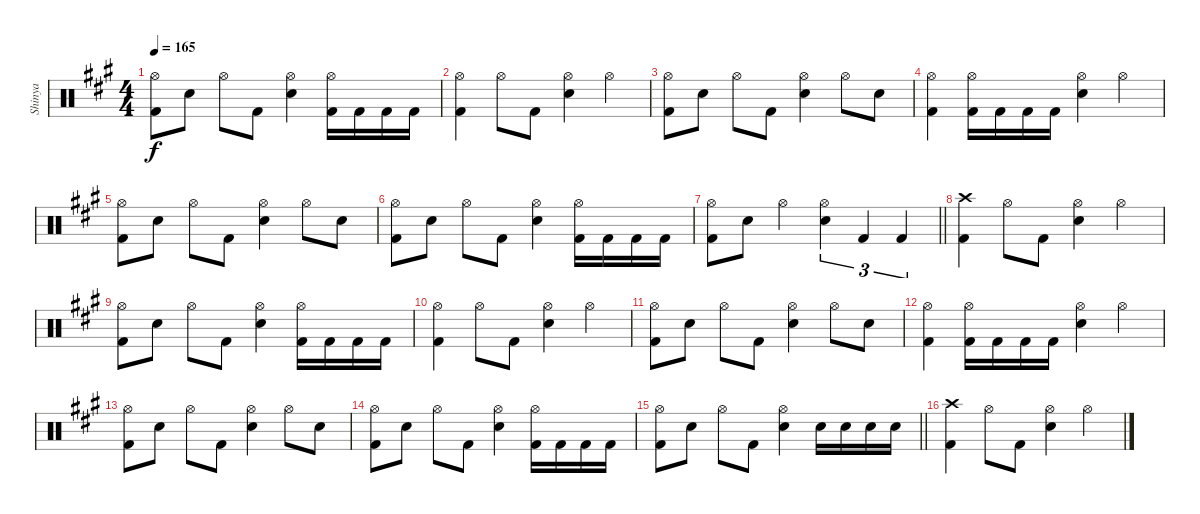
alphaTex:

\track ("Shinya" "Shinya") {instrument percussion}
\staff {score}
\articulation defaults
\ts (4 4)
\tempo 165
\clef neutral
\ks a
("Hi-Hat (open)" "Kick (hit) 2").8{dy f} "Snare (hit) 2".8 "Hi-Hat (open)".8 "Kick (hit) 2".8 ("Hi-Hat (open)" "Snare (hit) 2").4 ("Hi-Hat (open)" "Kick (hit) 2").16 "Kick (hit) 2".16 "Kick (hit) 2".16 "Kick (hit) 2".16 |
("Hi-Hat (open)" "Kick (hit) 2").4 "Hi-Hat (open)".8 "Kick (hit) 2".8 ("Hi-Hat (open)" "Snare (hit) 2").4 "Hi-Hat (open)".4 |
("Hi-Hat (open)" "Kick (hit) 2").8 "Snare (hit) 2".8 "Hi-Hat (open)".8 "Kick (hit) 2".8 ("Hi-Hat (open)" "Snare (hit) 2").4 "Hi-Hat (open)".8 "Snare (hit) 2".8 |
("Hi-Hat (open)" "Kick (hit) 2").4 ("Hi-Hat (open)" "Kick (hit) 2").16 "Kick (hit) 2".16 "Kick (hit) 2".16 "Kick (hit) 2".16 ("Hi-Hat (open)" "Snare (hit) 2").4 "Hi-Hat (open)".4 |
("Hi-Hat (open)" "Kick (hit) 2").8 "Snare (hit) 2".8 "Hi-Hat (open)".8 "Kick (hit) 2".8 ("Hi-Hat (open)" "Snare (hit) 2").4 "Hi-Hat (open)".8 "Snare (hit) 2".8 |
("Hi-Hat (open)" "Kick (hit) 2").8 "Snare (hit) 2".8 "Hi-Hat (open)".8 "Kick (hit) 2".8 ("Hi-Hat (open)" "Snare (hit) 2").4 ("Hi-Hat (open)" "Kick (hit) 2").16 "Kick (hit) 2".16 "Kick (hit) 2".16 "Kick (hit) 2".16 |
\barLineRight lightlight
("Hi-Hat (open)" "Kick (hit) 2").8 "Snare (hit) 2".8 "Hi-Hat (open)".4 ("Hi-Hat (open)" "Snare (hit) 2").4{tu (3 2)} "Kick (hit) 2".4{tu (3 2)} "Kick (hit) 2".4{tu (3 2)} |
("Crash high (hit)" "Kick (hit) 2").4 "Hi-Hat (open)".8 "Kick (hit) 2".8 ("Hi-Hat (open)" "Snare (hit) 2").4 "Hi-Hat (open)".4 |
("Hi-Hat (open)" "Kick (hit) 2").8 "Snare (hit) 2".8 "Hi-Hat (open)".8 "Kick (hit) 2".8 ("Hi-Hat (open)" "Snare (hit) 2").4 ("Hi-Hat (open)" "Kick (hit) 2").16 "Kick (hit) 2".16 "Kick (hit) 2".16 "Kick (hit) 2".16 |
("Hi-Hat (open)" "Kick (hit) 2").4 "Hi-Hat (open)".8 "Kick (hit) 2".8 ("Hi-Hat (open)" "Snare (hit) 2").4 "Hi-Hat (open)".4 |
("Hi-Hat (open)" "Kick (hit) 2").8 "Snare (hit) 2".8 "Hi-Hat (open)".8 "Kick (hit) 2".8 ("Hi-Hat (open)" "Snare (hit) 2").4 "Hi-Hat (open)".8 "Snare (hit) 2".8 |
("Hi-Hat (open)" "Kick (hit) 2").4 ("Hi-Hat (open)" "Kick (hit) 2").16 "Kick (hit) 2".16 "Kick (hit) 2".16 "Kick (hit) 2".16 ("Hi-Hat (open)" "Snare (hit) 2").4 "Hi-Hat (open)".4 |
("Hi-Hat (open)" "Kick (hit) 2").8 "Snare (hit) 2".8 "Hi-Hat (open)".8 "Kick (hit) 2".8 ("Hi-Hat (open)" "Snare (hit) 2").4 "Hi-Hat (open)".8 "Snare (hit) 2".8 |
("Hi-Hat (open)" "Kick (hit) 2").8 "Snare (hit) 2".8 "Hi-Hat (open)".8 "Kick (hit) 2".8 ("Hi-Hat (open)" "Snare (hit) 2").4 ("Hi-Hat (open)" "Kick (hit) 2").16 "Kick (hit) 2".16 "Kick (hit) 2".16 "Kick (hit) 2".16 |
\barLineRight lightlight
("Hi-Hat (open)" "Kick (hit) 2").8 "Snare (hit) 2".8 "Hi-Hat (open)".8 "Kick (hit) 2".8 ("Hi-Hat (open)" "Snare (hit) 2").4 "Snare (hit) 2".16 "Snare (hit) 2".16 "Snare (hit) 2".16 "Snare (hit) 2".16 |
("Crash high (hit)" "Kick (hit) 2").4 "Hi-Hat (open)".8 "Kick (hit) 2".8 ("Hi-Hat (open)" "Snare (hit) 2").4 "Hi-Hat (open)".4
